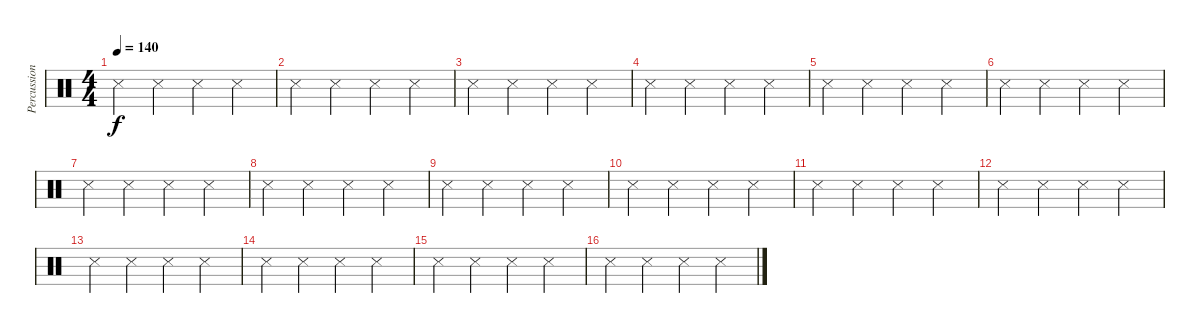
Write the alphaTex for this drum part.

\track ("Percussions" "Percussion") {instrument percussion}
\staff {score}
\articulation defaults
\ts (4 4)
\tempo 140
\clef neutral
\ks c "Metronome (hit)".4{dy f} "Metronome (hit)".4 "Metronome (hit)".4 "Metronome (hit)".4
|
"Metronome (hit)".4 "Metronome (hit)".4 "Metronome (hit)".4 "Metronome (hit)".4 |
"Metronome (hit)".4 "Metronome (hit)".4 "Metronome (hit)".4 "Metronome (hit)".4 |
"Metronome (hit)".4 "Metronome (hit)".4 "Metronome (hit)".4 "Metronome (hit)".4 |
"Metronome (hit)".4 "Metronome (hit)".4 "Metronome (hit)".4 "Metronome (hit)".4 |
"Metronome (hit)".4 "Metronome (hit)".4 "Metronome (hit)".4 "Metronome (hit)".4 |
"Metronome (hit)".4 "Metronome (hit)".4 "Metronome (hit)".4 "Metronome (hit)".4 |
"Metronome (hit)".4 "Metronome (hit)".4 "Metronome (hit)".4 "Metronome (hit)".4 |
"Metronome (hit)".4 "Metronome (hit)".4 "Metronome (hit)".4 "Metronome (hit)".4 |
"Metronome (hit)".4 "Metronome (hit)".4 "Metronome (hit)".4 "Metronome (hit)".4 |
"Metronome (hit)".4 "Metronome (hit)".4 "Metronome (hit)".4 "Metronome (hit)".4 |
"Metronome (hit)".4 "Metronome (hit)".4 "Metronome (hit)".4 "Metronome (hit)".4 |
"Metronome (hit)".4 "Metronome (hit)".4 "Metronome (hit)".4 "Metronome (hit)".4 |
"Metronome (hit)".4 "Metronome (hit)".4 "Metronome (hit)".4 "Metronome (hit)".4 |
"Metronome (hit)".4 "Metronome (hit)".4 "Metronome (hit)".4 "Metronome (hit)".4 |
"Metronome (hit)".4 "Metronome (hit)".4 "Metronome (hit)".4 "Metronome (hit)".4
